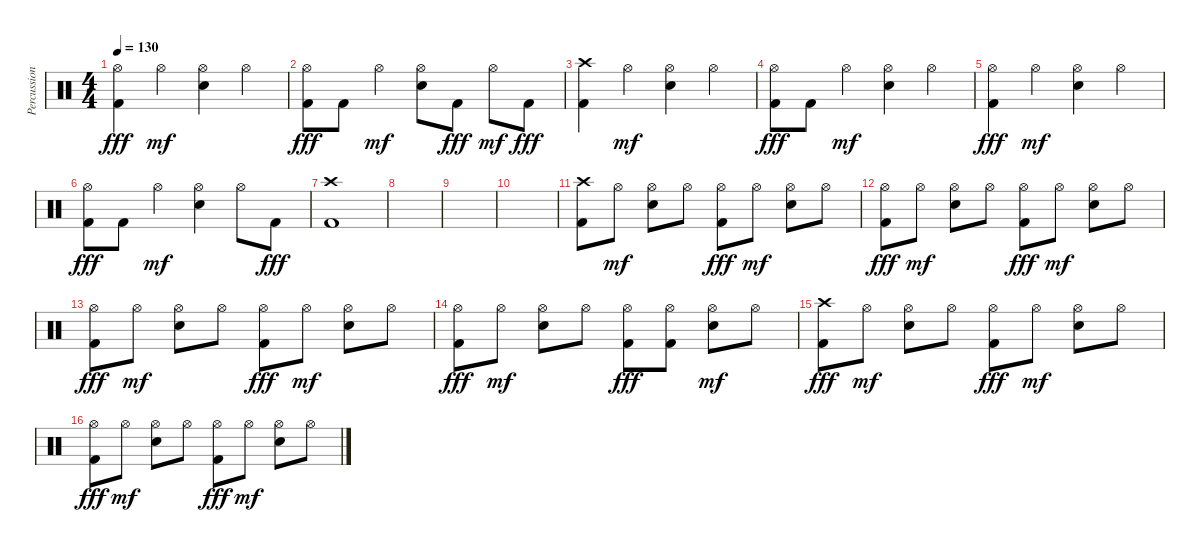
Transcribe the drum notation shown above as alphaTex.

\track ("Percussion" "Percussion") {instrument percussion}
\staff {score}
\articulation defaults
\ts (4 4)
\tempo 130
\clef neutral
\ks c
("Hi-Hat (open)" "Kick (hit) 2").4{dy fff} "Hi-Hat (open)".4{dy mf} ("Hi-Hat (open)" "Electric Snare (hit)").4 "Hi-Hat (open)".4 |
("Hi-Hat (open)" "Kick (hit) 2").8{dy fff} "Kick (hit) 2".8 "Hi-Hat (open)".4{dy mf} ("Hi-Hat (open)" "Electric Snare (hit)").8 "Kick (hit) 2".8{dy fff} "Hi-Hat (open)".8{dy mf} "Kick (hit) 2".8{dy fff} |
("Crash high (hit)" "Kick (hit) 2").4 "Hi-Hat (open)".4{dy mf} ("Hi-Hat (open)" "Electric Snare (hit)").4 "Hi-Hat (open)".4 |
("Hi-Hat (open)" "Kick (hit) 2").8{dy fff} "Kick (hit) 2".8 "Hi-Hat (open)".4{dy mf} ("Hi-Hat (open)" "Electric Snare (hit)").4 "Hi-Hat (open)".4 |
("Hi-Hat (open)" "Kick (hit) 2").4{dy fff} "Hi-Hat (open)".4{dy mf} ("Hi-Hat (open)" "Electric Snare (hit)").4 "Hi-Hat (open)".4 |
("Hi-Hat (open)" "Kick (hit) 2").8{dy fff} "Kick (hit) 2".8 "Hi-Hat (open)".4{dy mf} ("Hi-Hat (open)" "Electric Snare (hit)").4 "Hi-Hat (open)".8 "Kick (hit) 2".8{dy fff} |
("Crash high (hit)" "Kick (hit) 2").1 |
|
|
|
("Crash high (hit)" "Kick (hit) 2").8 "Hi-Hat (open)".8{dy mf} ("Hi-Hat (open)" "Electric Snare (hit)").8 "Hi-Hat (open)".8 ("Hi-Hat (open)" "Kick (hit) 2").8{dy fff} "Hi-Hat (open)".8{dy mf} ("Hi-Hat (open)" "Electric Snare (hit)").8 "Hi-Hat (open)".8 |
("Hi-Hat (open)" "Kick (hit) 2").8{dy fff} "Hi-Hat (open)".8{dy mf} ("Hi-Hat (open)" "Electric Snare (hit)").8 "Hi-Hat (open)".8 ("Hi-Hat (open)" "Kick (hit) 2").8{dy fff} "Hi-Hat (open)".8{dy mf} ("Hi-Hat (open)" "Electric Snare (hit)").8 "Hi-Hat (open)".8 |
("Hi-Hat (open)" "Kick (hit) 2").8{dy fff} "Hi-Hat (open)".8{dy mf} ("Hi-Hat (open)" "Electric Snare (hit)").8 "Hi-Hat (open)".8 ("Hi-Hat (open)" "Kick (hit) 2").8{dy fff} "Hi-Hat (open)".8{dy mf} ("Hi-Hat (open)" "Electric Snare (hit)").8 "Hi-Hat (open)".8 |
("Hi-Hat (open)" "Kick (hit) 2").8{dy fff} "Hi-Hat (open)".8{dy mf} ("Hi-Hat (open)" "Electric Snare (hit)").8 "Hi-Hat (open)".8 ("Hi-Hat (open)" "Kick (hit) 2").8{dy fff} ("Hi-Hat (open)" "Kick (hit) 2").8 ("Hi-Hat (open)" "Electric Snare (hit)").8{dy mf} "Hi-Hat (open)".8 |
("Crash high (hit)" "Kick (hit) 2").8{dy fff} "Hi-Hat (open)".8{dy mf} ("Hi-Hat (open)" "Electric Snare (hit)").8 "Hi-Hat (open)".8 ("Hi-Hat (open)" "Kick (hit) 2").8{dy fff} "Hi-Hat (open)".8{dy mf} ("Hi-Hat (open)" "Electric Snare (hit)").8 "Hi-Hat (open)".8 |
("Hi-Hat (open)" "Kick (hit) 2").8{dy fff} "Hi-Hat (open)".8{dy mf} ("Hi-Hat (open)" "Electric Snare (hit)").8 "Hi-Hat (open)".8 ("Hi-Hat (open)" "Kick (hit) 2").8{dy fff} "Hi-Hat (open)".8{dy mf} ("Hi-Hat (open)" "Electric Snare (hit)").8 "Hi-Hat (open)".8
